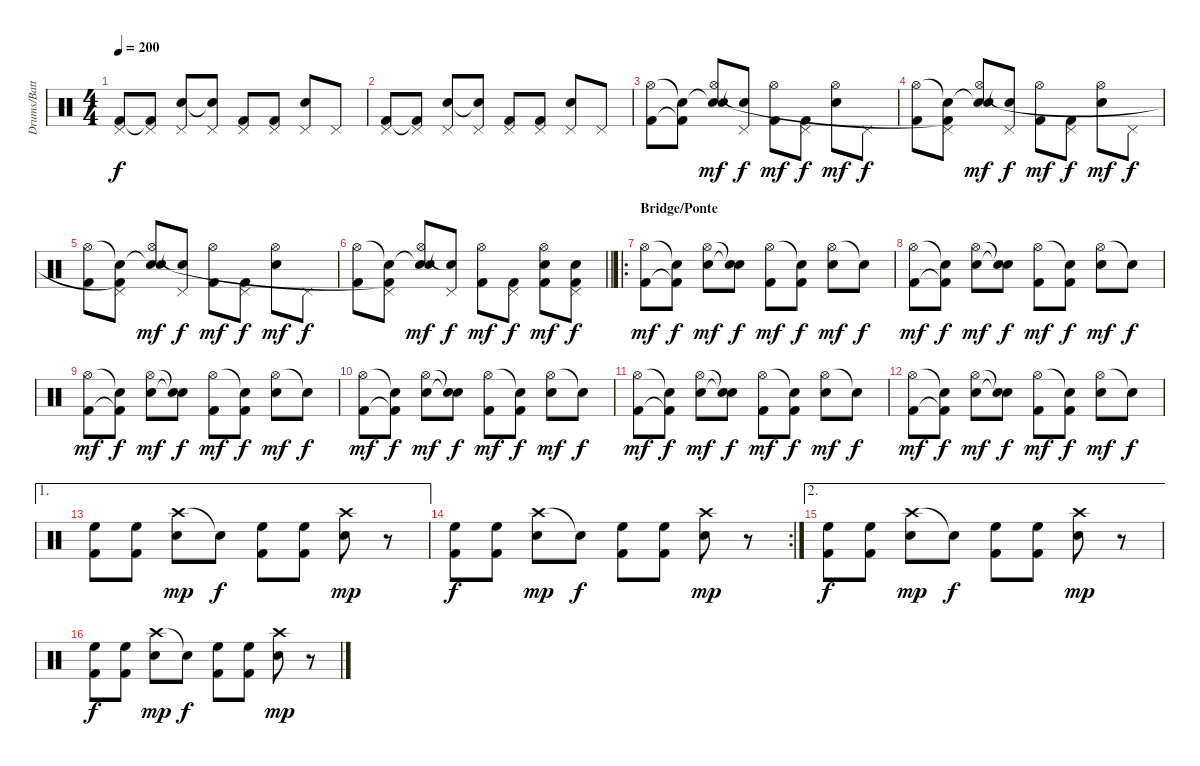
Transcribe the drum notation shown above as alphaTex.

\track ("Drums/Batteria" "Drums/Batt") {instrument percussion}
\staff {score}
\articulation defaults
\ts (4 4)
\tempo 200
\clef neutral
\ks c
("Pedal Hi-Hat (hit)" "Kick (hit) 2").8{dy f} ("Pedal Hi-Hat (hit)" "Kick (hit) 2"{t}).8 ("Pedal Hi-Hat (hit)" "Electric Snare (hit)").8 ("Pedal Hi-Hat (hit)" "Electric Snare (hit)"{t}).8 ("Pedal Hi-Hat (hit)" "Kick (hit) 2").8 ("Pedal Hi-Hat (hit)" "Kick (hit) 2").8 ("Pedal Hi-Hat (hit)" "Electric Snare (hit)").8 "Pedal Hi-Hat (hit)".8 |
("Pedal Hi-Hat (hit)" "Kick (hit) 2").8 ("Pedal Hi-Hat (hit)" "Kick (hit) 2"{t}).8 ("Pedal Hi-Hat (hit)" "Electric Snare (hit)").8 ("Pedal Hi-Hat (hit)" "Electric Snare (hit)"{t}).8 ("Pedal Hi-Hat (hit)" "Kick (hit) 2").8 ("Pedal Hi-Hat (hit)" "Kick (hit) 2").8 ("Pedal Hi-Hat (hit)" "Electric Snare (hit)").8 "Pedal Hi-Hat (hit)".8 |
("Hi-Hat (open)" "Kick (hit) 2").8 ("Snare (hit)"{t} "Kick (hit) 2"{t}).8 ("Snare (hit)"{t} "Hi-Hat (open)" "Electric Snare (hit)").8{dy mf} ("Pedal Hi-Hat (hit)" "Snare (hit)"{t}).8{dy f} ("Hi-Hat (open)" "Kick (hit) 2").8{dy mf} ("Pedal Hi-Hat (hit)" "Kick (hit) 2").8{dy f} ("Hi-Hat (open)" "Electric Snare (hit)").8{dy mf} "Pedal Hi-Hat (hit)".8{dy f} |
("Hi-Hat (open)" "Kick (hit) 2").8 ("Snare (hit)"{t} "Pedal Hi-Hat (hit)" "Kick (hit) 2"{t}).8 ("Snare (hit)"{t} "Hi-Hat (open)" "Electric Snare (hit)").8{dy mf} ("Pedal Hi-Hat (hit)" "Snare (hit)"{t}).8{dy f} ("Hi-Hat (open)" "Kick (hit) 2").8{dy mf} ("Pedal Hi-Hat (hit)" "Kick (hit) 2").8{dy f} ("Hi-Hat (open)" "Electric Snare (hit)").8{dy mf} "Pedal Hi-Hat (hit)".8{dy f} |
("Hi-Hat (open)" "Kick (hit) 2").8 ("Snare (hit)"{t} "Pedal Hi-Hat (hit)" "Kick (hit) 2"{t}).8 ("Snare (hit)"{t} "Hi-Hat (open)" "Electric Snare (hit)").8{dy mf} ("Pedal Hi-Hat (hit)" "Snare (hit)"{t}).8{dy f} ("Hi-Hat (open)" "Kick (hit) 2").8{dy mf} ("Pedal Hi-Hat (hit)" "Kick (hit) 2").8{dy f} ("Hi-Hat (open)" "Electric Snare (hit)").8{dy mf} "Pedal Hi-Hat (hit)".8{dy f} |
\barLineRight lightlight
("Hi-Hat (open)" "Kick (hit) 2").8 ("Snare (hit)"{t} "Pedal Hi-Hat (hit)" "Kick (hit) 2"{t}).8 ("Snare (hit)"{t} "Hi-Hat (open)" "Electric Snare (hit)").8{dy mf} ("Pedal Hi-Hat (hit)" "Snare (hit)"{t}).8{dy f} ("Hi-Hat (open)" "Kick (hit) 2").8{dy mf} ("Pedal Hi-Hat (hit)" "Kick (hit) 2").8{dy f} ("Hi-Hat (open)" "Electric Snare (hit)" "Kick (hit) 2").8{dy mf} ("Pedal Hi-Hat (hit)" "Electric Snare (hit)" "Kick (hit) 2").8{dy f} |
\ro
\section ("" "Bridge/Ponte")
("Hi-Hat (open)" "Kick (hit) 2").8{dy mf} ("Snare (hit)"{t} "Kick (hit) 2"{t}).8{dy f} ("Hi-Hat (open)" "Electric Snare (hit)").8{dy mf} ("Snare (hit)"{t} "Snare (hit)"{t}).8{dy f} ("Hi-Hat (open)" "Kick (hit) 2").8{dy mf} ("Snare (hit)"{t} "Kick (hit) 2").8{dy f} ("Hi-Hat (open)" "Electric Snare (hit)").8{dy mf} "Snare (hit)"{t}.8{dy f} |
("Hi-Hat (open)" "Kick (hit) 2").8{dy mf} ("Snare (hit)"{t} "Kick (hit) 2"{t}).8{dy f} ("Hi-Hat (open)" "Electric Snare (hit)").8{dy mf} ("Snare (hit)"{t} "Snare (hit)"{t}).8{dy f} ("Hi-Hat (open)" "Kick (hit) 2").8{dy mf} ("Snare (hit)"{t} "Kick (hit) 2").8{dy f} ("Hi-Hat (open)" "Electric Snare (hit)").8{dy mf} "Snare (hit)"{t}.8{dy f} |
("Hi-Hat (open)" "Kick (hit) 2").8{dy mf} ("Snare (hit)"{t} "Kick (hit) 2"{t}).8{dy f} ("Hi-Hat (open)" "Electric Snare (hit)").8{dy mf} ("Snare (hit)"{t} "Snare (hit)"{t}).8{dy f} ("Hi-Hat (open)" "Kick (hit) 2").8{dy mf} ("Snare (hit)"{t} "Kick (hit) 2").8{dy f} ("Hi-Hat (open)" "Electric Snare (hit)").8{dy mf} "Snare (hit)"{t}.8{dy f} |
("Hi-Hat (open)" "Kick (hit) 2").8{dy mf} ("Snare (hit)"{t} "Kick (hit) 2"{t}).8{dy f} ("Hi-Hat (open)" "Electric Snare (hit)").8{dy mf} ("Snare (hit)"{t} "Snare (hit)"{t}).8{dy f} ("Hi-Hat (open)" "Kick (hit) 2").8{dy mf} ("Snare (hit)"{t} "Kick (hit) 2").8{dy f} ("Hi-Hat (open)" "Electric Snare (hit)").8{dy mf} "Snare (hit)"{t}.8{dy f} |
("Hi-Hat (open)" "Kick (hit) 2").8{dy mf} ("Snare (hit)"{t} "Kick (hit) 2"{t}).8{dy f} ("Hi-Hat (open)" "Electric Snare (hit)").8{dy mf} ("Snare (hit)"{t} "Snare (hit)"{t}).8{dy f} ("Hi-Hat (open)" "Kick (hit) 2").8{dy mf} ("Snare (hit)"{t} "Kick (hit) 2").8{dy f} ("Hi-Hat (open)" "Electric Snare (hit)").8{dy mf} "Snare (hit)"{t}.8{dy f} |
("Hi-Hat (open)" "Kick (hit) 2").8{dy mf} ("Snare (hit)"{t} "Kick (hit) 2"{t}).8{dy f} ("Hi-Hat (open)" "Electric Snare (hit)").8{dy mf} ("Snare (hit)"{t} "Snare (hit)"{t}).8{dy f} ("Hi-Hat (open)" "Kick (hit) 2").8{dy mf} ("Snare (hit)"{t} "Kick (hit) 2").8{dy f} ("Hi-Hat (open)" "Electric Snare (hit)").8{dy mf} "Snare (hit)"{t}.8{dy f} |
\ae 1
("High Floor Tom (hit)" "Kick (hit) 2").8 ("High Floor Tom (hit)" "Kick (hit) 2").8 ("Crash high (hit)" "Electric Snare (hit)").8{dy mp} "Snare (hit)"{t}.8{dy f} ("High Floor Tom (hit)" "Kick (hit) 2").8 ("High Floor Tom (hit)" "Kick (hit) 2").8 ("Crash high (hit)" "Electric Snare (hit)").8{dy mp} r.8 |
\rc 2
("High Floor Tom (hit)" "Kick (hit) 2").8{dy f} ("High Floor Tom (hit)" "Kick (hit) 2").8 ("Crash high (hit)" "Electric Snare (hit)").8{dy mp} "Snare (hit)"{t}.8{dy f} ("High Floor Tom (hit)" "Kick (hit) 2").8 ("High Floor Tom (hit)" "Kick (hit) 2").8 ("Crash high (hit)" "Electric Snare (hit)").8{dy mp} r.8 |
\ae 2
("High Floor Tom (hit)" "Kick (hit) 2").8{dy f} ("High Floor Tom (hit)" "Kick (hit) 2").8 ("Crash high (hit)" "Electric Snare (hit)").8{dy mp} "Snare (hit)"{t}.8{dy f} ("High Floor Tom (hit)" "Kick (hit) 2").8 ("High Floor Tom (hit)" "Kick (hit) 2").8 ("Crash high (hit)" "Electric Snare (hit)").8{dy mp} r.8 |
("High Floor Tom (hit)" "Kick (hit) 2").8{dy f} ("High Floor Tom (hit)" "Kick (hit) 2").8 ("Crash high (hit)" "Electric Snare (hit)").8{dy mp} "Snare (hit)"{t}.8{dy f} ("High Floor Tom (hit)" "Kick (hit) 2").8 ("High Floor Tom (hit)" "Kick (hit) 2").8 ("Crash high (hit)" "Electric Snare (hit)").8{dy mp} r.8
